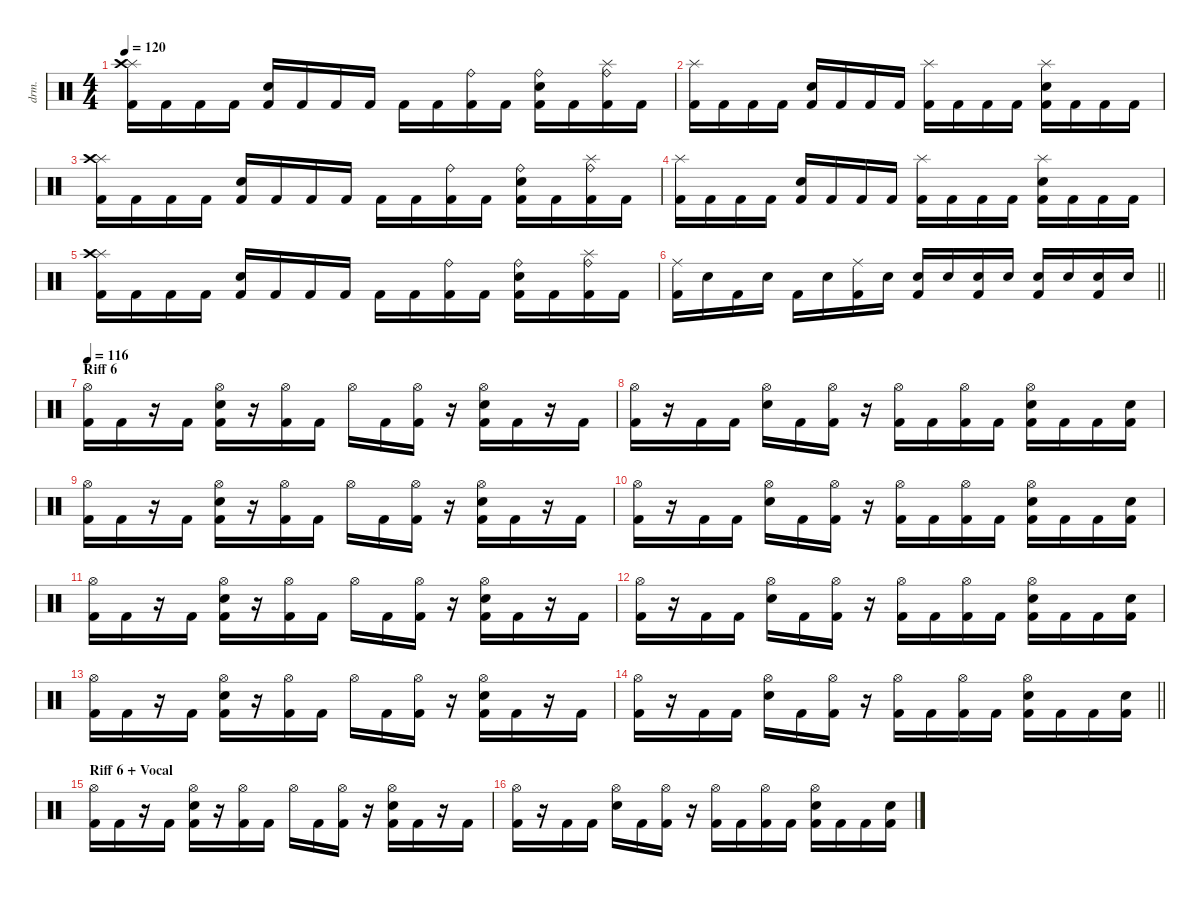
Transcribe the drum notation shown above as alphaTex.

\defaultSystemsLayout 4
\hideDynamics
\bracketExtendMode nobrackets
\otherSystemsTrackNameOrientation horizontal
\track ("Drums" "drm.") {instrument percussion}
\staff {score}
\articulation defaults
\ts (4 4)
\tempo 120
\clef neutral
\ks c
("Splash (hit)" "Crash high (hit)" "Kick (hit) 2").16{dy f} "Kick (hit) 2".16 "Kick (hit) 2".16 "Kick (hit) 2".16 ("Snare (hit) 2" "Kick (hit) 2").16 "Kick (hit) 2".16 "Kick (hit) 2".16 "Kick (hit) 2".16 "Kick (hit) 2".16 "Kick (hit) 2".16 ("Ride (bell)" "Kick (hit) 2").16 "Kick (hit) 2".16 ("Ride (bell)" "Snare (hit) 2" "Kick (hit) 2").16 "Kick (hit) 2".16 ("Ride (bell)" "Splash (hit)" "Kick (hit) 2").16 "Kick (hit) 2".16 |
("Splash (hit)" "Kick (hit) 2").16 "Kick (hit) 2".16 "Kick (hit) 2".16 "Kick (hit) 2".16 ("Snare (hit) 2" "Kick (hit) 2").16 "Kick (hit) 2".16 "Kick (hit) 2".16 "Kick (hit) 2".16 ("Splash (hit)" "Kick (hit) 2").16 "Kick (hit) 2".16 "Kick (hit) 2".16 "Kick (hit) 2".16 ("Splash (hit)" "Snare (hit) 2" "Kick (hit) 2").16 "Kick (hit) 2".16 "Kick (hit) 2".16 "Kick (hit) 2".16 |
("Splash (hit)" "Crash high (hit)" "Kick (hit) 2").16 "Kick (hit) 2".16 "Kick (hit) 2".16 "Kick (hit) 2".16 ("Snare (hit) 2" "Kick (hit) 2").16 "Kick (hit) 2".16 "Kick (hit) 2".16 "Kick (hit) 2".16 "Kick (hit) 2".16 "Kick (hit) 2".16 ("Ride (bell)" "Kick (hit) 2").16 "Kick (hit) 2".16 ("Ride (bell)" "Snare (hit) 2" "Kick (hit) 2").16 "Kick (hit) 2".16 ("Ride (bell)" "Splash (hit)" "Kick (hit) 2").16 "Kick (hit) 2".16 |
("Splash (hit)" "Kick (hit) 2").16 "Kick (hit) 2".16 "Kick (hit) 2".16 "Kick (hit) 2".16 ("Snare (hit) 2" "Kick (hit) 2").16 "Kick (hit) 2".16 "Kick (hit) 2".16 "Kick (hit) 2".16 ("Splash (hit)" "Kick (hit) 2").16 "Kick (hit) 2".16 "Kick (hit) 2".16 "Kick (hit) 2".16 ("Splash (hit)" "Snare (hit) 2" "Kick (hit) 2").16 "Kick (hit) 2".16 "Kick (hit) 2".16 "Kick (hit) 2".16 |
("Splash (hit)" "Crash high (hit)" "Kick (hit) 2").16 "Kick (hit) 2".16 "Kick (hit) 2".16 "Kick (hit) 2".16 ("Snare (hit) 2" "Kick (hit) 2").16 "Kick (hit) 2".16 "Kick (hit) 2".16 "Kick (hit) 2".16 "Kick (hit) 2".16 "Kick (hit) 2".16 ("Ride (bell)" "Kick (hit) 2").16 "Kick (hit) 2".16 ("Ride (bell)" "Snare (hit) 2" "Kick (hit) 2").16 "Kick (hit) 2".16 ("Ride (bell)" "Splash (hit)" "Kick (hit) 2").16 "Kick (hit) 2".16 |
\barLineRight lightlight
("Ride (middle)" "Kick (hit) 2").16 "Snare (hit) 2".16 "Kick (hit) 2".16 "Snare (hit) 2".16 "Kick (hit) 2".16 "Snare (hit) 2".16 ("Ride (middle)" "Kick (hit) 2").16 "Snare (hit) 2".16 ("Snare (hit) 2" "Kick (hit) 2").16 "Snare (hit) 2".16 ("Snare (hit) 2" "Kick (hit) 2").16 "Snare (hit) 2".16 ("Snare (hit) 2" "Kick (hit) 2").16 "Snare (hit) 2".16 ("Snare (hit) 2" "Kick (hit) 2").16 "Snare (hit) 2".16 |
\section ("" "Riff 6")
\tempo 116
("Hi-Hat (open)" "Kick (hit) 2").16 "Kick (hit) 2".16 r.16 "Kick (hit) 2".16 ("Hi-Hat (open)" "Snare (hit) 2" "Kick (hit) 2").16 r.16 ("Hi-Hat (open)" "Kick (hit) 2").16 "Kick (hit) 2".16 "Hi-Hat (open)".16 "Kick (hit) 2".16 ("Hi-Hat (open)" "Kick (hit) 2").16 r.16 ("Hi-Hat (open)" "Snare (hit) 2" "Kick (hit) 2").16 "Kick (hit) 2".16 r.16 "Kick (hit) 2".16 |
("Hi-Hat (open)" "Kick (hit) 2").16 r.16 "Kick (hit) 2".16 "Kick (hit) 2".16 ("Hi-Hat (open)" "Snare (hit) 2").16 "Kick (hit) 2".16 ("Hi-Hat (open)" "Kick (hit) 2").16 r.16 ("Hi-Hat (open)" "Kick (hit) 2").16 "Kick (hit) 2".16 ("Hi-Hat (open)" "Kick (hit) 2").16 "Kick (hit) 2".16 ("Hi-Hat (open)" "Snare (hit) 2" "Kick (hit) 2").16 "Kick (hit) 2".16 "Kick (hit) 2".16 ("Snare (hit) 2" "Kick (hit) 2").16 |
("Hi-Hat (open)" "Kick (hit) 2").16 "Kick (hit) 2".16 r.16 "Kick (hit) 2".16 ("Hi-Hat (open)" "Snare (hit) 2" "Kick (hit) 2").16 r.16 ("Hi-Hat (open)" "Kick (hit) 2").16 "Kick (hit) 2".16 "Hi-Hat (open)".16 "Kick (hit) 2".16 ("Hi-Hat (open)" "Kick (hit) 2").16 r.16 ("Hi-Hat (open)" "Snare (hit) 2" "Kick (hit) 2").16 "Kick (hit) 2".16 r.16 "Kick (hit) 2".16 |
("Hi-Hat (open)" "Kick (hit) 2").16 r.16 "Kick (hit) 2".16 "Kick (hit) 2".16 ("Hi-Hat (open)" "Snare (hit) 2").16 "Kick (hit) 2".16 ("Hi-Hat (open)" "Kick (hit) 2").16 r.16 ("Hi-Hat (open)" "Kick (hit) 2").16 "Kick (hit) 2".16 ("Hi-Hat (open)" "Kick (hit) 2").16 "Kick (hit) 2".16 ("Hi-Hat (open)" "Snare (hit) 2" "Kick (hit) 2").16 "Kick (hit) 2".16 "Kick (hit) 2".16 ("Snare (hit) 2" "Kick (hit) 2").16 |
("Hi-Hat (open)" "Kick (hit) 2").16 "Kick (hit) 2".16 r.16 "Kick (hit) 2".16 ("Hi-Hat (open)" "Snare (hit) 2" "Kick (hit) 2").16 r.16 ("Hi-Hat (open)" "Kick (hit) 2").16 "Kick (hit) 2".16 "Hi-Hat (open)".16 "Kick (hit) 2".16 ("Hi-Hat (open)" "Kick (hit) 2").16 r.16 ("Hi-Hat (open)" "Snare (hit) 2" "Kick (hit) 2").16 "Kick (hit) 2".16 r.16 "Kick (hit) 2".16 |
("Hi-Hat (open)" "Kick (hit) 2").16 r.16 "Kick (hit) 2".16 "Kick (hit) 2".16 ("Hi-Hat (open)" "Snare (hit) 2").16 "Kick (hit) 2".16 ("Hi-Hat (open)" "Kick (hit) 2").16 r.16 ("Hi-Hat (open)" "Kick (hit) 2").16 "Kick (hit) 2".16 ("Hi-Hat (open)" "Kick (hit) 2").16 "Kick (hit) 2".16 ("Hi-Hat (open)" "Snare (hit) 2" "Kick (hit) 2").16 "Kick (hit) 2".16 "Kick (hit) 2".16 ("Snare (hit) 2" "Kick (hit) 2").16 |
("Hi-Hat (open)" "Kick (hit) 2").16 "Kick (hit) 2".16 r.16 "Kick (hit) 2".16 ("Hi-Hat (open)" "Snare (hit) 2" "Kick (hit) 2").16 r.16 ("Hi-Hat (open)" "Kick (hit) 2").16 "Kick (hit) 2".16 "Hi-Hat (open)".16 "Kick (hit) 2".16 ("Hi-Hat (open)" "Kick (hit) 2").16 r.16 ("Hi-Hat (open)" "Snare (hit) 2" "Kick (hit) 2").16 "Kick (hit) 2".16 r.16 "Kick (hit) 2".16 |
\barLineRight lightlight
("Hi-Hat (open)" "Kick (hit) 2").16 r.16 "Kick (hit) 2".16 "Kick (hit) 2".16 ("Hi-Hat (open)" "Snare (hit) 2").16 "Kick (hit) 2".16 ("Hi-Hat (open)" "Kick (hit) 2").16 r.16 ("Hi-Hat (open)" "Kick (hit) 2").16 "Kick (hit) 2".16 ("Hi-Hat (open)" "Kick (hit) 2").16 "Kick (hit) 2".16 ("Hi-Hat (open)" "Snare (hit) 2" "Kick (hit) 2").16 "Kick (hit) 2".16 "Kick (hit) 2".16 ("Snare (hit) 2" "Kick (hit) 2").16 |
\section ("" "Riff 6 + Vocal")
("Hi-Hat (open)" "Kick (hit) 2").16 "Kick (hit) 2".16 r.16 "Kick (hit) 2".16 ("Hi-Hat (open)" "Snare (hit) 2" "Kick (hit) 2").16 r.16 ("Hi-Hat (open)" "Kick (hit) 2").16 "Kick (hit) 2".16 "Hi-Hat (open)".16 "Kick (hit) 2".16 ("Hi-Hat (open)" "Kick (hit) 2").16 r.16 ("Hi-Hat (open)" "Snare (hit) 2" "Kick (hit) 2").16 "Kick (hit) 2".16 r.16 "Kick (hit) 2".16 |
("Hi-Hat (open)" "Kick (hit) 2").16 r.16 "Kick (hit) 2".16 "Kick (hit) 2".16 ("Hi-Hat (open)" "Snare (hit) 2").16 "Kick (hit) 2".16 ("Hi-Hat (open)" "Kick (hit) 2").16 r.16 ("Hi-Hat (open)" "Kick (hit) 2").16 "Kick (hit) 2".16 ("Hi-Hat (open)" "Kick (hit) 2").16 "Kick (hit) 2".16 ("Hi-Hat (open)" "Snare (hit) 2" "Kick (hit) 2").16 "Kick (hit) 2".16 "Kick (hit) 2".16 ("Snare (hit) 2" "Kick (hit) 2").16
